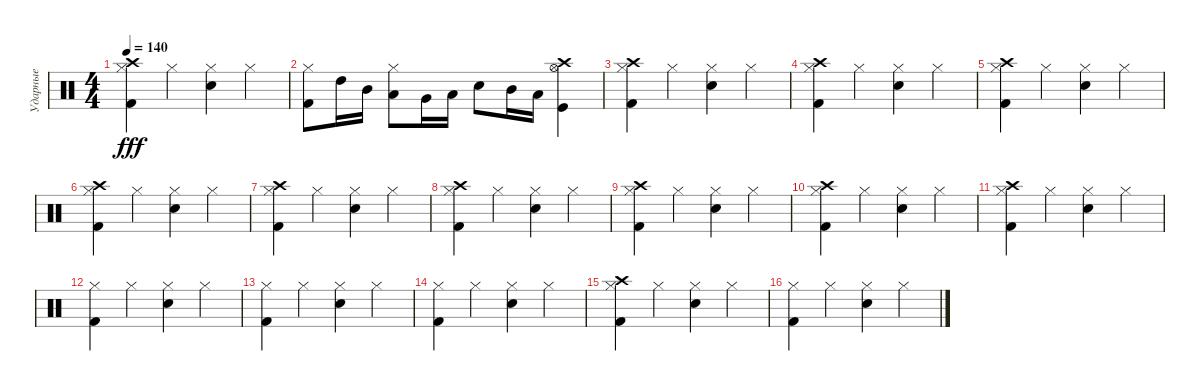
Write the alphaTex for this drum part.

\track ("Ударные" "Ударные") {instrument percussion}
\staff {score}
\articulation defaults
\ts (4 4)
\tempo 140
\clef neutral
\ks c
("Kick (hit) 2" "Hi-Hat (closed)" "Crash high (hit)").4{dy fff} "Hi-Hat (closed)".4 ("Electric Snare (hit)" "Hi-Hat (closed)").4 "Hi-Hat (closed)".4 |
("Kick (hit) 2" "Hi-Hat (closed)").8 "High Tom (hit)".16 "Mid Tom (hit)".16 ("Low Tom (hit)" "Hi-Hat (closed)").8 "Very Low Tom (hit)".16 "Low Floor Tom (hit)".16 "Electric Snare (hit)".8 "Mid Tom (hit)".16 "Low Tom (hit)".16 ("Kick (hit)" "Hi-Hat (open)" "Crash high (hit)").4 |
("Kick (hit) 2" "Hi-Hat (closed)" "Crash high (hit)").4 "Hi-Hat (closed)".4 ("Electric Snare (hit)" "Hi-Hat (closed)").4 "Hi-Hat (closed)".4 |
("Kick (hit) 2" "Crash high (hit)" "Hi-Hat (closed)").4 "Hi-Hat (closed)".4 ("Electric Snare (hit)" "Hi-Hat (closed)").4 "Hi-Hat (closed)".4 |
("Kick (hit) 2" "Hi-Hat (closed)" "Crash high (hit)").4 "Hi-Hat (closed)".4 ("Electric Snare (hit)" "Hi-Hat (closed)").4 "Hi-Hat (closed)".4 |
("Kick (hit) 2" "Hi-Hat (closed)" "Crash high (hit)").4 "Hi-Hat (closed)".4 ("Electric Snare (hit)" "Hi-Hat (closed)").4 "Hi-Hat (closed)".4 |
("Kick (hit) 2" "Hi-Hat (closed)" "Crash high (hit)").4 "Hi-Hat (closed)".4 ("Electric Snare (hit)" "Hi-Hat (closed)").4 "Hi-Hat (closed)".4 |
("Kick (hit) 2" "Crash high (hit)" "Hi-Hat (closed)").4 "Hi-Hat (closed)".4 ("Electric Snare (hit)" "Hi-Hat (closed)").4 "Hi-Hat (closed)".4 |
("Kick (hit) 2" "Hi-Hat (closed)" "Crash high (hit)").4 "Hi-Hat (closed)".4 ("Electric Snare (hit)" "Hi-Hat (closed)").4 "Hi-Hat (closed)".4 |
("Kick (hit) 2" "Hi-Hat (closed)" "Crash high (hit)").4 "Hi-Hat (closed)".4 ("Electric Snare (hit)" "Hi-Hat (closed)").4 "Hi-Hat (closed)".4 |
("Kick (hit) 2" "Hi-Hat (closed)" "Crash high (hit)").4 "Hi-Hat (closed)".4 ("Electric Snare (hit)" "Hi-Hat (closed)").4 "Hi-Hat (closed)".4 |
("Kick (hit) 2" "Hi-Hat (closed)").4 "Hi-Hat (closed)".4 ("Electric Snare (hit)" "Hi-Hat (closed)").4 "Hi-Hat (closed)".4 |
("Kick (hit) 2" "Hi-Hat (closed)").4 "Hi-Hat (closed)".4 ("Electric Snare (hit)" "Hi-Hat (closed)").4 "Hi-Hat (closed)".4 |
("Kick (hit) 2" "Hi-Hat (closed)").4 "Hi-Hat (closed)".4 ("Electric Snare (hit)" "Hi-Hat (closed)").4 "Hi-Hat (closed)".4 |
("Kick (hit) 2" "Hi-Hat (closed)" "Crash high (hit)").4 "Hi-Hat (closed)".4 ("Electric Snare (hit)" "Hi-Hat (closed)").4 "Hi-Hat (closed)".4 |
("Kick (hit) 2" "Hi-Hat (closed)").4 "Hi-Hat (closed)".4 ("Electric Snare (hit)" "Hi-Hat (closed)").4 "Hi-Hat (closed)".4
